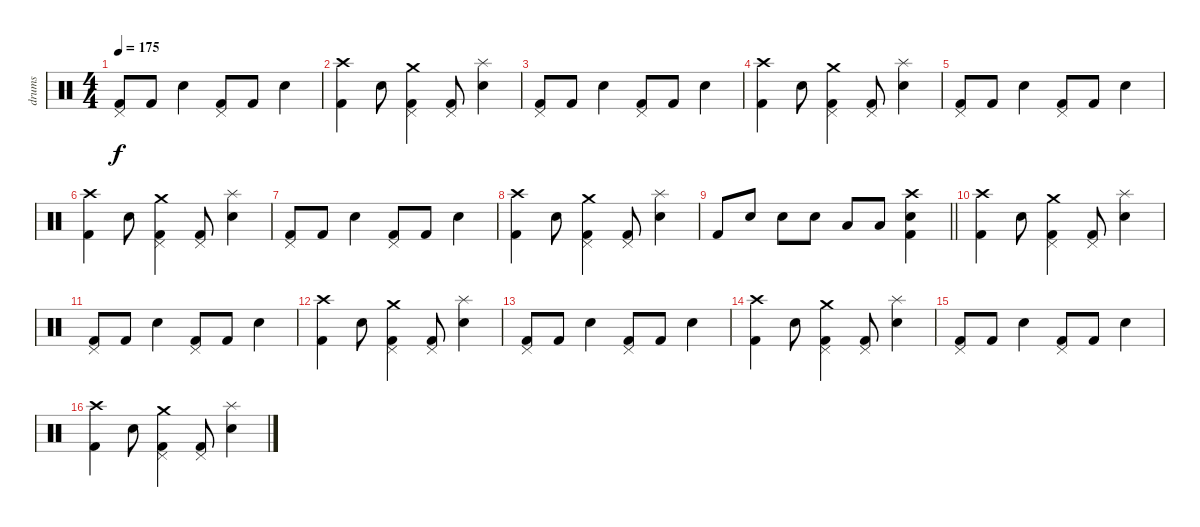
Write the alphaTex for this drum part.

\track ("drums" "drums") {instrument percussion}
\staff {score}
\articulation defaults
\ts (4 4)
\tempo 175
\clef neutral
\ks c
("Pedal Hi-Hat (hit)" "Kick (hit) 2").8{dy f} "Kick (hit) 2".8 "Electric Snare (hit)".4 ("Pedal Hi-Hat (hit)" "Kick (hit) 2").8 "Kick (hit) 2".8 "Electric Snare (hit)".4 |
("Crash high (hit)" "Kick (hit) 2").4 "Electric Snare (hit)".8 ("Crash medium (hit)" "Pedal Hi-Hat (hit)" "Kick (hit) 2").4 ("Pedal Hi-Hat (hit)" "Kick (hit) 2").8 ("Splash (hit)" "Electric Snare (hit)").4 |
("Pedal Hi-Hat (hit)" "Kick (hit) 2").8 "Kick (hit) 2".8 "Electric Snare (hit)".4 ("Pedal Hi-Hat (hit)" "Kick (hit) 2").8 "Kick (hit) 2".8 "Electric Snare (hit)".4 |
("Crash high (hit)" "Kick (hit) 2").4 "Electric Snare (hit)".8 ("Crash medium (hit)" "Pedal Hi-Hat (hit)" "Kick (hit) 2").4 ("Pedal Hi-Hat (hit)" "Kick (hit) 2").8 ("Splash (hit)" "Electric Snare (hit)").4 |
("Pedal Hi-Hat (hit)" "Kick (hit) 2").8 "Kick (hit) 2".8 "Electric Snare (hit)".4 ("Pedal Hi-Hat (hit)" "Kick (hit) 2").8 "Kick (hit) 2".8 "Electric Snare (hit)".4 |
("Crash high (hit)" "Kick (hit) 2").4 "Electric Snare (hit)".8 ("Crash medium (hit)" "Pedal Hi-Hat (hit)" "Kick (hit) 2").4 ("Pedal Hi-Hat (hit)" "Kick (hit) 2").8 ("Splash (hit)" "Electric Snare (hit)").4 |
("Pedal Hi-Hat (hit)" "Kick (hit) 2").8 "Kick (hit) 2".8 "Electric Snare (hit)".4 ("Pedal Hi-Hat (hit)" "Kick (hit) 2").8 "Kick (hit) 2".8 "Electric Snare (hit)".4 |
("Crash high (hit)" "Kick (hit) 2").4 "Electric Snare (hit)".8 ("Crash medium (hit)" "Pedal Hi-Hat (hit)" "Kick (hit) 2").4 ("Pedal Hi-Hat (hit)" "Kick (hit) 2").8 ("Splash (hit)" "Electric Snare (hit)").4 |
\barLineRight lightlight "Kick (hit) 2".8 "Electric Snare (hit)".8 "Electric Snare (hit)".8 "Electric Snare (hit)".8 "Low Tom (hit)".8 "Low Tom (hit)".8
("Crash high (hit)" "Electric Snare (hit)" "Kick (hit) 2").4 |
("Crash high (hit)" "Kick (hit) 2").4 "Electric Snare (hit)".8 ("Crash medium (hit)" "Pedal Hi-Hat (hit)" "Kick (hit) 2").4 ("Pedal Hi-Hat (hit)" "Kick (hit) 2").8 ("Splash (hit)" "Electric Snare (hit)").4 |
("Pedal Hi-Hat (hit)" "Kick (hit) 2").8 "Kick (hit) 2".8 "Electric Snare (hit)".4 ("Pedal Hi-Hat (hit)" "Kick (hit) 2").8 "Kick (hit) 2".8 "Electric Snare (hit)".4 |
("Crash high (hit)" "Kick (hit) 2").4 "Electric Snare (hit)".8 ("Crash medium (hit)" "Pedal Hi-Hat (hit)" "Kick (hit) 2").4 ("Pedal Hi-Hat (hit)" "Kick (hit) 2").8 ("Splash (hit)" "Electric Snare (hit)").4 |
("Pedal Hi-Hat (hit)" "Kick (hit) 2").8 "Kick (hit) 2".8 "Electric Snare (hit)".4 ("Pedal Hi-Hat (hit)" "Kick (hit) 2").8 "Kick (hit) 2".8 "Electric Snare (hit)".4 |
("Crash high (hit)" "Kick (hit) 2").4 "Electric Snare (hit)".8 ("Crash medium (hit)" "Pedal Hi-Hat (hit)" "Kick (hit) 2").4 ("Pedal Hi-Hat (hit)" "Kick (hit) 2").8 ("Splash (hit)" "Electric Snare (hit)").4 |
("Pedal Hi-Hat (hit)" "Kick (hit) 2").8 "Kick (hit) 2".8 "Electric Snare (hit)".4 ("Pedal Hi-Hat (hit)" "Kick (hit) 2").8 "Kick (hit) 2".8 "Electric Snare (hit)".4 |
("Crash high (hit)" "Kick (hit) 2").4 "Electric Snare (hit)".8 ("Crash medium (hit)" "Pedal Hi-Hat (hit)" "Kick (hit) 2").4 ("Pedal Hi-Hat (hit)" "Kick (hit) 2").8 ("Splash (hit)" "Electric Snare (hit)").4
